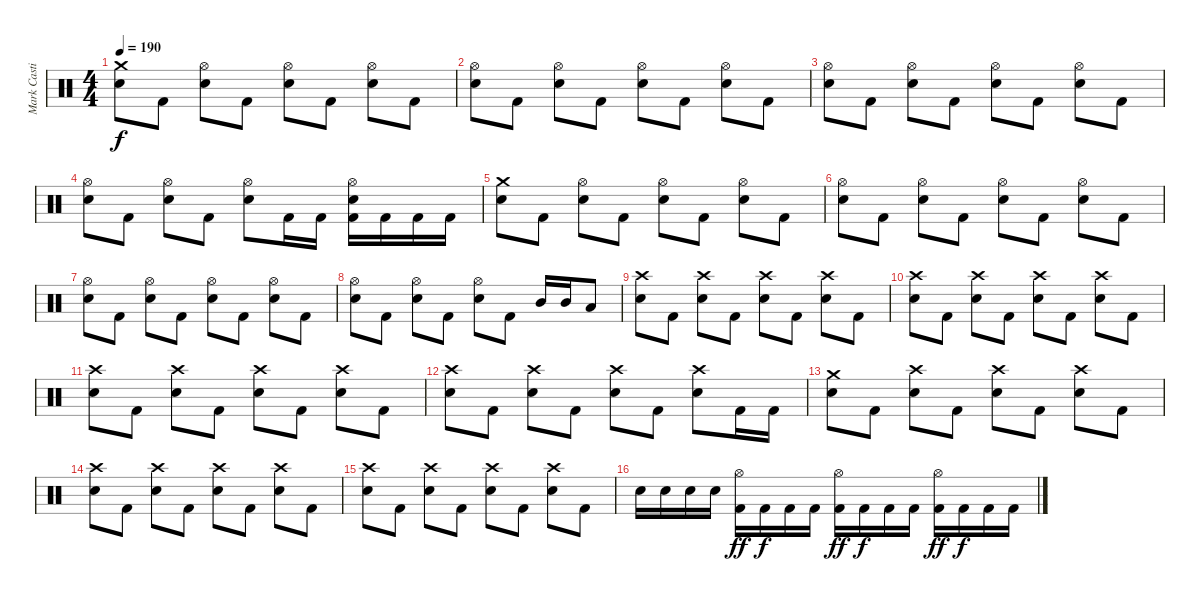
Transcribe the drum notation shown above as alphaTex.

\track ("Mark Castillo" "Mark Casti") {instrument percussion}
\staff {score}
\articulation defaults
\ts (4 4)
\tempo 190
\clef neutral
\ks c
("Crash medium (hit)" "Electric Snare (hit)").8{dy f} "Kick (hit) 2".8 ("Hi-Hat (open)" "Electric Snare (hit)").8 "Kick (hit) 2".8 ("Hi-Hat (open)" "Electric Snare (hit)").8 "Kick (hit) 2".8 ("Hi-Hat (open)" "Electric Snare (hit)").8 "Kick (hit) 2".8 |
("Hi-Hat (open)" "Electric Snare (hit)").8 "Kick (hit) 2".8 ("Hi-Hat (open)" "Electric Snare (hit)").8 "Kick (hit) 2".8 ("Hi-Hat (open)" "Electric Snare (hit)").8 "Kick (hit) 2".8 ("Hi-Hat (open)" "Electric Snare (hit)").8 "Kick (hit) 2".8 |
("Hi-Hat (open)" "Electric Snare (hit)").8 "Kick (hit) 2".8 ("Hi-Hat (open)" "Electric Snare (hit)").8 "Kick (hit) 2".8 ("Hi-Hat (open)" "Electric Snare (hit)").8 "Kick (hit) 2".8 ("Hi-Hat (open)" "Electric Snare (hit)").8 "Kick (hit) 2".8 |
("Hi-Hat (open)" "Electric Snare (hit)").8 "Kick (hit) 2".8 ("Hi-Hat (open)" "Electric Snare (hit)").8 "Kick (hit) 2".8 ("Hi-Hat (open)" "Electric Snare (hit)").8 "Kick (hit) 2".16 "Kick (hit) 2".16 ("Hi-Hat (open)" "Electric Snare (hit)" "Kick (hit) 2").16 "Kick (hit) 2".16 "Kick (hit) 2".16 "Kick (hit) 2".16 |
("Crash medium (hit)" "Electric Snare (hit)").8 "Kick (hit) 2".8 ("Hi-Hat (open)" "Electric Snare (hit)").8 "Kick (hit) 2".8 ("Hi-Hat (open)" "Electric Snare (hit)").8 "Kick (hit) 2".8 ("Hi-Hat (open)" "Electric Snare (hit)").8 "Kick (hit) 2".8 |
("Hi-Hat (open)" "Electric Snare (hit)").8 "Kick (hit) 2".8 ("Hi-Hat (open)" "Electric Snare (hit)").8 "Kick (hit) 2".8 ("Hi-Hat (open)" "Electric Snare (hit)").8 "Kick (hit) 2".8 ("Hi-Hat (open)" "Electric Snare (hit)").8 "Kick (hit) 2".8 |
("Hi-Hat (open)" "Electric Snare (hit)").8 "Kick (hit) 2".8 ("Hi-Hat (open)" "Electric Snare (hit)").8 "Kick (hit) 2".8 ("Hi-Hat (open)" "Electric Snare (hit)").8 "Kick (hit) 2".8 ("Hi-Hat (open)" "Electric Snare (hit)").8 "Kick (hit) 2".8 |
("Hi-Hat (open)" "Electric Snare (hit)").8 "Kick (hit) 2".8 ("Hi-Hat (open)" "Electric Snare (hit)").8 "Kick (hit) 2".8 ("Hi-Hat (open)" "Electric Snare (hit)").8 "Kick (hit) 2".8 "Mid Tom (hit)".16 "Mid Tom (hit)".16 "Low Tom (hit)".8 |
("Crash high (hit)" "Electric Snare (hit)").8 "Kick (hit) 2".8 ("Crash high (hit)" "Electric Snare (hit)").8 "Kick (hit) 2".8 ("Crash high (hit)" "Electric Snare (hit)").8 "Kick (hit) 2".8 ("Crash high (hit)" "Electric Snare (hit)").8 "Kick (hit) 2".8 |
("Crash high (hit)" "Electric Snare (hit)").8 "Kick (hit) 2".8 ("Crash high (hit)" "Electric Snare (hit)").8 "Kick (hit) 2".8 ("Crash high (hit)" "Electric Snare (hit)").8 "Kick (hit) 2".8 ("Crash high (hit)" "Electric Snare (hit)").8 "Kick (hit) 2".8 |
("Crash high (hit)" "Electric Snare (hit)").8 "Kick (hit) 2".8 ("Crash high (hit)" "Electric Snare (hit)").8 "Kick (hit) 2".8 ("Crash high (hit)" "Electric Snare (hit)").8 "Kick (hit) 2".8 ("Crash high (hit)" "Electric Snare (hit)").8 "Kick (hit) 2".8 |
("Crash high (hit)" "Electric Snare (hit)").8 "Kick (hit) 2".8 ("Crash high (hit)" "Electric Snare (hit)").8 "Kick (hit) 2".8 ("Crash high (hit)" "Electric Snare (hit)").8 "Kick (hit) 2".8 ("Crash high (hit)" "Electric Snare (hit)").8 "Kick (hit) 2".16 "Kick (hit) 2".16 |
("Crash medium (hit)" "Electric Snare (hit)").8 "Kick (hit) 2".8 ("Crash high (hit)" "Electric Snare (hit)").8 "Kick (hit) 2".8 ("Crash high (hit)" "Electric Snare (hit)").8 "Kick (hit) 2".8 ("Crash high (hit)" "Electric Snare (hit)").8 "Kick (hit) 2".8 |
("Crash high (hit)" "Electric Snare (hit)").8 "Kick (hit) 2".8 ("Crash high (hit)" "Electric Snare (hit)").8 "Kick (hit) 2".8 ("Crash high (hit)" "Electric Snare (hit)").8 "Kick (hit) 2".8 ("Crash high (hit)" "Electric Snare (hit)").8 "Kick (hit) 2".8 |
("Crash high (hit)" "Electric Snare (hit)").8 "Kick (hit) 2".8 ("Crash high (hit)" "Electric Snare (hit)").8 "Kick (hit) 2".8 ("Crash high (hit)" "Electric Snare (hit)").8 "Kick (hit) 2".8 ("Crash high (hit)" "Electric Snare (hit)").8 "Kick (hit) 2".8 |
"Electric Snare (hit)".16 "Electric Snare (hit)".16 "Electric Snare (hit)".16 "Electric Snare (hit)".16 ("Hi-Hat (open)" "Kick (hit) 2").16{dy ff} "Kick (hit) 2".16{dy f} "Kick (hit) 2".16 "Kick (hit) 2".16 ("Hi-Hat (open)" "Kick (hit) 2").16{dy ff} "Kick (hit) 2".16{dy f} "Kick (hit) 2".16 "Kick (hit) 2".16 ("Hi-Hat (open)" "Kick (hit) 2").16{dy ff} "Kick (hit) 2".16{dy f} "Kick (hit) 2".16 "Kick (hit) 2".16
